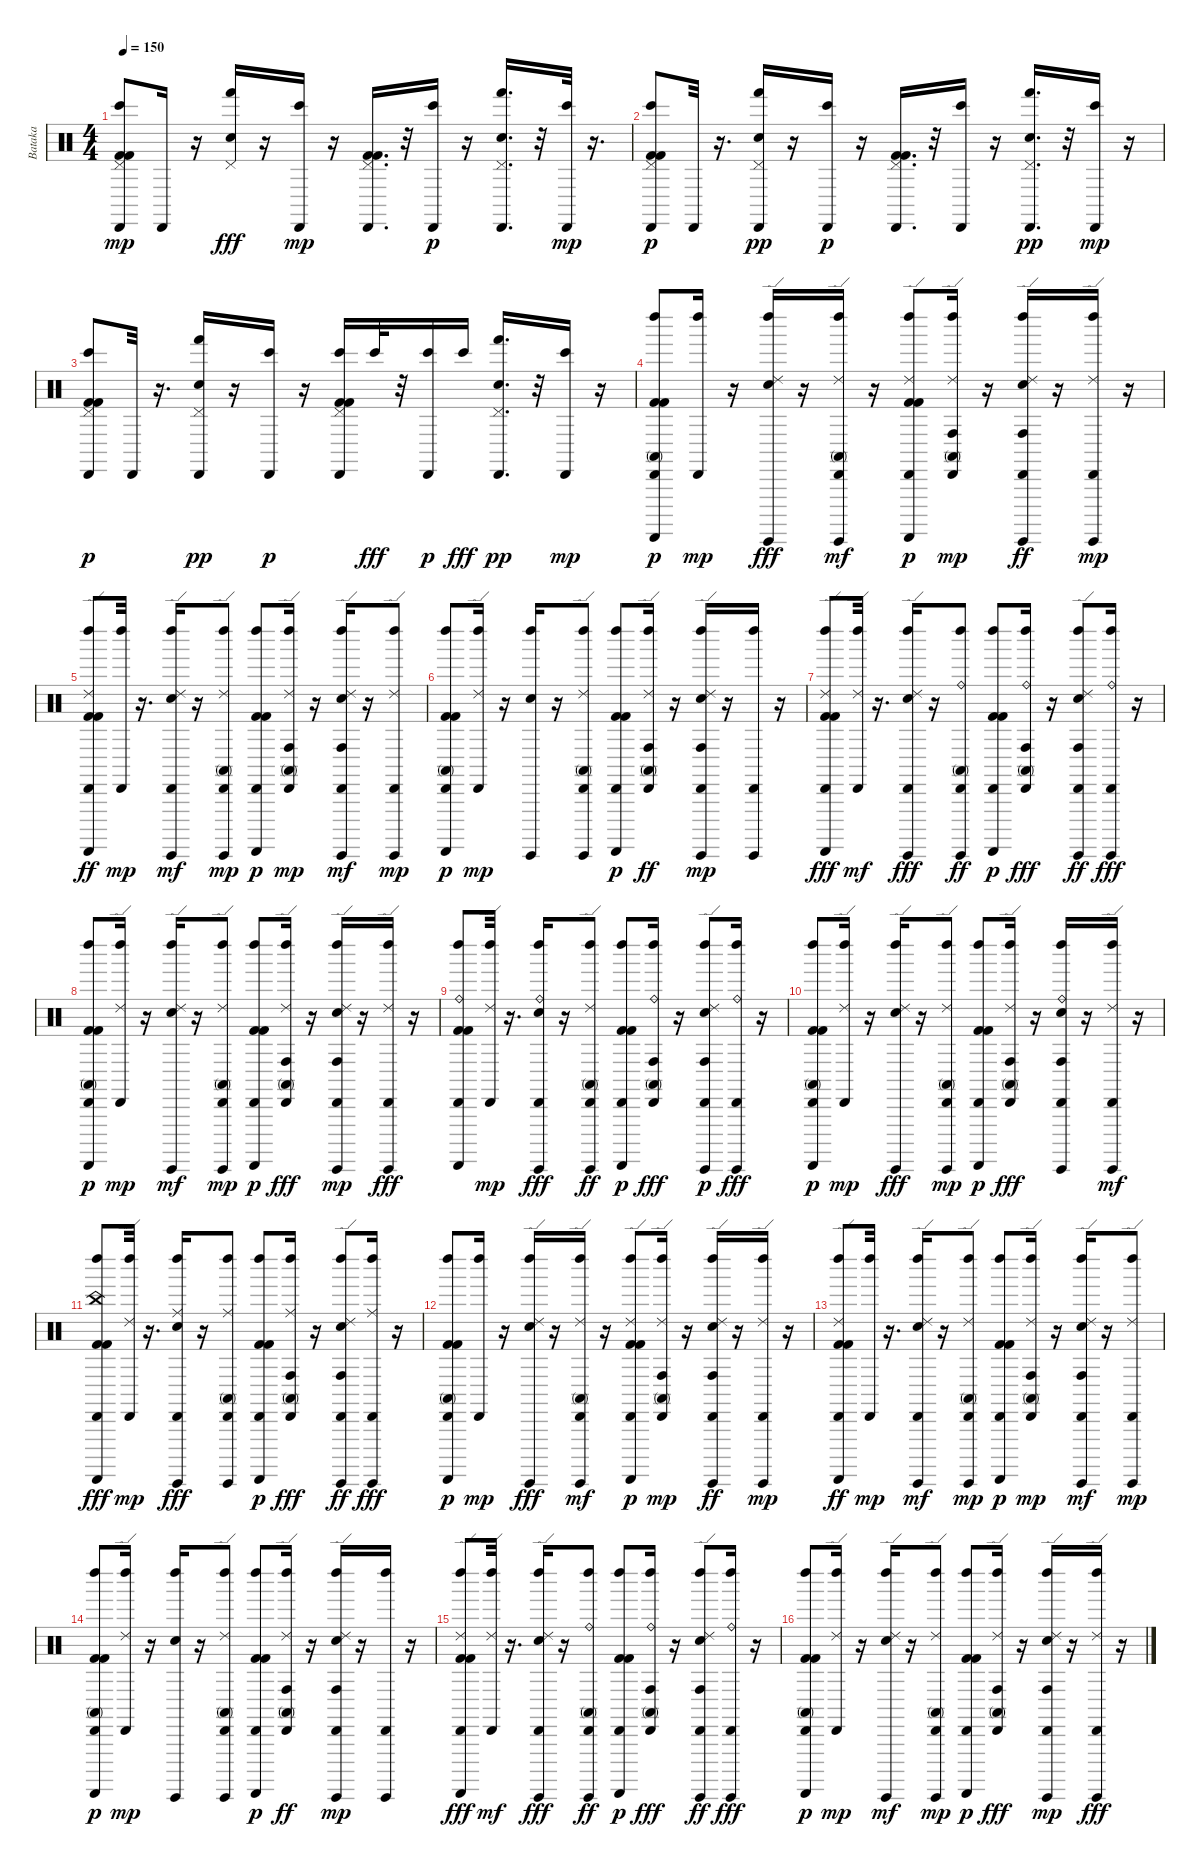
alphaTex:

\track ("Bataka" "Bataka") {instrument percussion}
\staff {score}
\articulation defaults
\ts (4 4)
\tempo 150
\clef neutral
\ks c
("Kick (hit) 2" "Kick (hit) 2" "Pedal Hi-Hat (hit)" "Bongo High (hit)" "Cabasa (hit)").8{dy mp} "Cabasa (hit)".16 r.16 ("Electric Snare (hit)" "Pedal Hi-Hat (hit)" "Hand (hit)").16{dy fff} r.16 ("Bongo High (hit)" "Cabasa (hit)").16{dy mp} r.16 ("Kick (hit) 2" "Kick (hit) 2" "Pedal Hi-Hat (hit)" "Cabasa (hit)").16{d} r.32 ("Bongo High (hit)" "Cabasa (hit)").16{dy p} r.16 ("Electric Snare (hit)" "Pedal Hi-Hat (hit)" "Hand (hit)" "Cabasa (hit)").16{d} r.32 ("Bongo High (hit)" "Cabasa (hit)").32{dy mp} r.16{d} |
("Kick (hit) 2" "Kick (hit) 2" "Pedal Hi-Hat (hit)" "Bongo High (hit)" "Cabasa (hit)").8{dy p} "Cabasa (hit)".32 r.16{d} ("Electric Snare (hit)" "Pedal Hi-Hat (hit)" "Hand (hit)" "Cabasa (hit)").16{dy pp} r.16 ("Bongo High (hit)" "Cabasa (hit)").16{dy p} r.16 ("Kick (hit) 2" "Kick (hit) 2" "Pedal Hi-Hat (hit)" "Cabasa (hit)").16{d} r.32 ("Bongo High (hit)" "Cabasa (hit)").16 r.16 ("Electric Snare (hit)" "Pedal Hi-Hat (hit)" "Hand (hit)" "Cabasa (hit)").16{d dy pp} r.32 ("Bongo High (hit)" "Cabasa (hit)").16{dy mp} r.16 |
("Kick (hit) 2" "Kick (hit) 2" "Pedal Hi-Hat (hit)" "Bongo High (hit)" "Cabasa (hit)").8{dy p} "Cabasa (hit)".32 r.16{d} ("Electric Snare (hit)" "Pedal Hi-Hat (hit)" "Hand (hit)" "Cabasa (hit)").16{dy pp} r.16 ("Bongo High (hit)" "Cabasa (hit)").16{dy p} r.16 ("Kick (hit) 2" "Kick (hit) 2" "Pedal Hi-Hat (hit)" "Bongo High (hit)" "Cabasa (hit)").16 "Bongo High (hit)".32{dy fff} r.32 ("Bongo High (hit)" "Cabasa (hit)").16{dy p} "Bongo High (hit)".16{dy fff} ("Electric Snare (hit)" "Pedal Hi-Hat (hit)" "Hand (hit)" "Cabasa (hit)").16{d dy pp} r.32 ("Bongo High (hit)" "Cabasa (hit)").16{dy mp} r.16 |
("Kick (hit) 2" "Kick (hit) 2" "Conga high (mute)" "Cabasa (hit)" "Guiro (scrap-return)" "Left Maraca (hit)").8{dy p} ("Cabasa (hit)" "Left Maraca (hit)").16{dy mp} r.16 ("Electric Snare (hit)" "Guiro (hit)" "Left Maraca (hit)" "Ride (edge) 2").16{dy fff} r.16 ("Conga high (mute)" "Cabasa (hit)" "Guiro (hit)" "Left Maraca (hit)" "Ride (edge) 2").16{dy mf} r.16 ("Kick (hit) 2" "Kick (hit) 2" "Cabasa (hit)" "Guiro (scrap-return)" "Left Maraca (hit)" "Ride (edge) 2").8{dy p} ("Conga high (hit)" "Conga high (mute)" "Cabasa (hit)" "Left Maraca (hit)" "Ride (edge) 2").16{dy mp} r.16 ("Electric Snare (hit)" "Conga high (hit)" "Cabasa (hit)" "Guiro (hit)" "Left Maraca (hit)" "Ride (edge) 2").16{dy ff} r.16 ("Cabasa (hit)" "Guiro (hit)" "Left Maraca (hit)" "Ride (edge) 2").16{dy mp} r.16 |
("Kick (hit) 2" "Kick (hit) 2" "Cabasa (hit)" "Guiro (scrap-return)" "Left Maraca (hit)" "Ride (edge) 2").8{dy ff} ("Cabasa (hit)" "Left Maraca (hit)").32{dy mp} r.16{d} ("Electric Snare (hit)" "Cabasa (hit)" "Guiro (hit)" "Left Maraca (hit)" "Ride (edge) 2").16{dy mf} r.16 ("Conga high (mute)" "Cabasa (hit)" "Guiro (hit)" "Left Maraca (hit)" "Ride (edge) 2").8{dy mp} ("Kick (hit) 2" "Kick (hit) 2" "Cabasa (hit)" "Guiro (scrap-return)" "Left Maraca (hit)").8{dy p} ("Conga high (hit)" "Conga high (mute)" "Cabasa (hit)" "Left Maraca (hit)" "Ride (edge) 2").16{dy mp} r.16 ("Electric Snare (hit)" "Conga high (hit)" "Cabasa (hit)" "Guiro (hit)" "Left Maraca (hit)" "Ride (edge) 2").16{dy mf} r.16 ("Cabasa (hit)" "Guiro (hit)" "Left Maraca (hit)" "Ride (edge) 2").8{dy mp} |
("Kick (hit) 2" "Kick (hit) 2" "Conga high (mute)" "Cabasa (hit)" "Guiro (scrap-return)" "Left Maraca (hit)").8{dy p} ("Cabasa (hit)" "Left Maraca (hit)" "Ride (edge) 2").16{dy mp} r.16 ("Electric Snare (hit)" "Guiro (hit)" "Left Maraca (hit)").16 r.16 ("Conga high (mute)" "Cabasa (hit)" "Guiro (hit)" "Left Maraca (hit)" "Ride (edge) 2").8 ("Kick (hit) 2" "Kick (hit) 2" "Cabasa (hit)" "Guiro (scrap-return)" "Left Maraca (hit)").8{dy p} ("Conga high (hit)" "Conga high (mute)" "Cabasa (hit)" "Left Maraca (hit)" "Ride (edge) 2").16{dy ff} r.16 ("Electric Snare (hit)" "Conga high (hit)" "Cabasa (hit)" "Guiro (hit)" "Left Maraca (hit)" "Ride (edge) 2").16{dy mp} r.16 ("Cabasa (hit)" "Guiro (hit)" "Left Maraca (hit)").16 r.16 |
("Kick (hit) 2" "Kick (hit) 2" "Cabasa (hit)" "Guiro (scrap-return)" "Left Maraca (hit)" "Ride (edge) 2").8{dy fff} ("Cabasa (hit)" "Left Maraca (hit)" "Ride (edge) 2").32{dy mf} r.16{d} ("Electric Snare (hit)" "Cabasa (hit)" "Guiro (hit)" "Left Maraca (hit)" "Ride (edge) 2").16{dy fff} r.16 ("Conga high (mute)" "Cabasa (hit)" "Guiro (hit)" "Left Maraca (hit)" "Ride (bell)").8{dy ff} ("Kick (hit) 2" "Kick (hit) 2" "Cabasa (hit)" "Guiro (scrap-return)" "Left Maraca (hit)").8{dy p} ("Conga high (hit)" "Conga high (mute)" "Cabasa (hit)" "Left Maraca (hit)" "Ride (bell)").16{dy fff} r.16 ("Electric Snare (hit)" "Conga high (hit)" "Cabasa (hit)" "Guiro (hit)" "Left Maraca (hit)" "Ride (edge) 2").8{dy ff} ("Cabasa (hit)" "Guiro (hit)" "Left Maraca (hit)" "Ride (bell)").16{dy fff} r.16 |
("Kick (hit) 2" "Kick (hit) 2" "Conga high (mute)" "Cabasa (hit)" "Guiro (scrap-return)" "Left Maraca (hit)").8{dy p} ("Cabasa (hit)" "Left Maraca (hit)" "Ride (edge) 2").16{dy mp} r.16 ("Electric Snare (hit)" "Guiro (hit)" "Left Maraca (hit)" "Ride (edge) 2").16{dy mf} r.16 ("Conga high (mute)" "Cabasa (hit)" "Guiro (hit)" "Left Maraca (hit)" "Ride (edge) 2").8{dy mp} ("Kick (hit) 2" "Kick (hit) 2" "Cabasa (hit)" "Guiro (scrap-return)" "Left Maraca (hit)").8{dy p} ("Conga high (hit)" "Conga high (mute)" "Cabasa (hit)" "Left Maraca (hit)" "Ride (edge) 2").16{dy fff} r.16 ("Electric Snare (hit)" "Conga high (hit)" "Cabasa (hit)" "Guiro (hit)" "Left Maraca (hit)" "Ride (edge) 2").16{dy mp} r.16 ("Cabasa (hit)" "Guiro (hit)" "Left Maraca (hit)" "Ride (edge) 2").16{dy fff} r.16 |
("Kick (hit) 2" "Kick (hit) 2" "Cabasa (hit)" "Guiro (scrap-return)" "Left Maraca (hit)" "Ride (bell)").8 ("Cabasa (hit)" "Left Maraca (hit)" "Ride (edge) 2").32{dy mp} r.16{d} ("Electric Snare (hit)" "Cabasa (hit)" "Guiro (hit)" "Left Maraca (hit)" "Ride (bell)").16{dy fff} r.16 ("Conga high (mute)" "Cabasa (hit)" "Guiro (hit)" "Left Maraca (hit)" "Ride (edge) 2").8{dy ff} ("Kick (hit) 2" "Kick (hit) 2" "Cabasa (hit)" "Guiro (scrap-return)" "Left Maraca (hit)").8{dy p} ("Conga high (hit)" "Conga high (mute)" "Cabasa (hit)" "Left Maraca (hit)" "Ride (bell)").16{dy fff} r.16 ("Electric Snare (hit)" "Conga high (hit)" "Cabasa (hit)" "Guiro (hit)" "Left Maraca (hit)" "Ride (edge) 2").8{dy p} ("Cabasa (hit)" "Guiro (hit)" "Left Maraca (hit)" "Ride (bell)").16{dy fff} r.16 |
("Kick (hit) 2" "Kick (hit) 2" "Conga high (mute)" "Cabasa (hit)" "Guiro (scrap-return)" "Left Maraca (hit)").8{dy p} ("Cabasa (hit)" "Left Maraca (hit)" "Ride (edge) 2").16{dy mp} r.16 ("Electric Snare (hit)" "Guiro (hit)" "Left Maraca (hit)" "Ride (edge) 2").16{dy fff} r.16 ("Conga high (mute)" "Cabasa (hit)" "Guiro (hit)" "Left Maraca (hit)" "Ride (edge) 2").8{dy mp} ("Kick (hit) 2" "Kick (hit) 2" "Cabasa (hit)" "Guiro (scrap-return)" "Left Maraca (hit)").8{dy p} ("Conga high (hit)" "Conga high (mute)" "Cabasa (hit)" "Left Maraca (hit)" "Ride (edge) 2").16{dy fff} r.16 ("Electric Snare (hit)" "Conga high (hit)" "Cabasa (hit)" "Guiro (hit)" "Left Maraca (hit)" "Ride (bell)").16 r.16 ("Cabasa (hit)" "Guiro (hit)" "Left Maraca (hit)" "Ride (edge) 2").16{dy mf} r.16 |
("Kick (hit) 2" "Kick (hit) 2" "Cabasa (hit)" "Guiro (scrap-return)" "Left Maraca (hit)" "China (hit)").8{dy fff} ("Cabasa (hit)" "Left Maraca (hit)" "Ride (edge) 2").32{dy mp} r.16{d} ("Electric Snare (hit)" "Cabasa (hit)" "Guiro (hit)" "Left Maraca (hit)" "Ride (middle)").16{dy fff} r.16 ("Conga high (mute)" "Cabasa (hit)" "Guiro (hit)" "Left Maraca (hit)" "Ride (middle)").8 ("Kick (hit) 2" "Kick (hit) 2" "Cabasa (hit)" "Guiro (scrap-return)" "Left Maraca (hit)").8{dy p} ("Conga high (hit)" "Conga high (mute)" "Cabasa (hit)" "Left Maraca (hit)" "Ride (middle)").16{dy fff} r.16 ("Electric Snare (hit)" "Conga high (hit)" "Cabasa (hit)" "Guiro (hit)" "Left Maraca (hit)" "Ride (edge) 2").8{dy ff} ("Cabasa (hit)" "Guiro (hit)" "Left Maraca (hit)" "Ride (middle)").16{dy fff} r.16 |
("Kick (hit) 2" "Kick (hit) 2" "Conga high (mute)" "Cabasa (hit)" "Guiro (scrap-return)" "Left Maraca (hit)").8{dy p} ("Cabasa (hit)" "Left Maraca (hit)").16{dy mp} r.16 ("Electric Snare (hit)" "Guiro (hit)" "Left Maraca (hit)" "Ride (edge) 2").16{dy fff} r.16 ("Conga high (mute)" "Cabasa (hit)" "Guiro (hit)" "Left Maraca (hit)" "Ride (edge) 2").16{dy mf} r.16 ("Kick (hit) 2" "Kick (hit) 2" "Cabasa (hit)" "Guiro (scrap-return)" "Left Maraca (hit)" "Ride (edge) 2").8{dy p} ("Conga high (hit)" "Conga high (mute)" "Cabasa (hit)" "Left Maraca (hit)" "Ride (edge) 2").16{dy mp} r.16 ("Electric Snare (hit)" "Conga high (hit)" "Cabasa (hit)" "Guiro (hit)" "Left Maraca (hit)" "Ride (edge) 2").16{dy ff} r.16 ("Cabasa (hit)" "Guiro (hit)" "Left Maraca (hit)" "Ride (edge) 2").16{dy mp} r.16 |
("Kick (hit) 2" "Kick (hit) 2" "Cabasa (hit)" "Guiro (scrap-return)" "Left Maraca (hit)" "Ride (edge) 2").8{dy ff} ("Cabasa (hit)" "Left Maraca (hit)").32{dy mp} r.16{d} ("Electric Snare (hit)" "Cabasa (hit)" "Guiro (hit)" "Left Maraca (hit)" "Ride (edge) 2").16{dy mf} r.16 ("Conga high (mute)" "Cabasa (hit)" "Guiro (hit)" "Left Maraca (hit)" "Ride (edge) 2").8{dy mp} ("Kick (hit) 2" "Kick (hit) 2" "Cabasa (hit)" "Guiro (scrap-return)" "Left Maraca (hit)").8{dy p} ("Conga high (hit)" "Conga high (mute)" "Cabasa (hit)" "Left Maraca (hit)" "Ride (edge) 2").16{dy mp} r.16 ("Electric Snare (hit)" "Conga high (hit)" "Cabasa (hit)" "Guiro (hit)" "Left Maraca (hit)" "Ride (edge) 2").16{dy mf} r.16 ("Cabasa (hit)" "Guiro (hit)" "Left Maraca (hit)" "Ride (edge) 2").8{dy mp} |
("Kick (hit) 2" "Kick (hit) 2" "Conga high (mute)" "Cabasa (hit)" "Guiro (scrap-return)" "Left Maraca (hit)").8{dy p} ("Cabasa (hit)" "Left Maraca (hit)" "Ride (edge) 2").16{dy mp} r.16 ("Electric Snare (hit)" "Guiro (hit)" "Left Maraca (hit)").16 r.16 ("Conga high (mute)" "Cabasa (hit)" "Guiro (hit)" "Left Maraca (hit)" "Ride (edge) 2").8 ("Kick (hit) 2" "Kick (hit) 2" "Cabasa (hit)" "Guiro (scrap-return)" "Left Maraca (hit)").8{dy p} ("Conga high (hit)" "Conga high (mute)" "Cabasa (hit)" "Left Maraca (hit)" "Ride (edge) 2").16{dy ff} r.16 ("Electric Snare (hit)" "Conga high (hit)" "Cabasa (hit)" "Guiro (hit)" "Left Maraca (hit)" "Ride (edge) 2").16{dy mp} r.16 ("Cabasa (hit)" "Guiro (hit)" "Left Maraca (hit)").16 r.16 |
("Kick (hit) 2" "Kick (hit) 2" "Cabasa (hit)" "Guiro (scrap-return)" "Left Maraca (hit)" "Ride (edge) 2").8{dy fff} ("Cabasa (hit)" "Left Maraca (hit)" "Ride (edge) 2").32{dy mf} r.16{d} ("Electric Snare (hit)" "Cabasa (hit)" "Guiro (hit)" "Left Maraca (hit)" "Ride (edge) 2").16{dy fff} r.16 ("Conga high (mute)" "Cabasa (hit)" "Guiro (hit)" "Left Maraca (hit)" "Ride (bell)").8{dy ff} ("Kick (hit) 2" "Kick (hit) 2" "Cabasa (hit)" "Guiro (scrap-return)" "Left Maraca (hit)").8{dy p} ("Conga high (hit)" "Conga high (mute)" "Cabasa (hit)" "Left Maraca (hit)" "Ride (bell)").16{dy fff} r.16 ("Electric Snare (hit)" "Conga high (hit)" "Cabasa (hit)" "Guiro (hit)" "Left Maraca (hit)" "Ride (edge) 2").8{dy ff} ("Cabasa (hit)" "Guiro (hit)" "Left Maraca (hit)" "Ride (bell)").16{dy fff} r.16 |
("Kick (hit) 2" "Kick (hit) 2" "Conga high (mute)" "Cabasa (hit)" "Guiro (scrap-return)" "Left Maraca (hit)").8{dy p} ("Cabasa (hit)" "Left Maraca (hit)" "Ride (edge) 2").16{dy mp} r.16 ("Electric Snare (hit)" "Guiro (hit)" "Left Maraca (hit)" "Ride (edge) 2").16{dy mf} r.16 ("Conga high (mute)" "Cabasa (hit)" "Guiro (hit)" "Left Maraca (hit)" "Ride (edge) 2").8{dy mp} ("Kick (hit) 2" "Kick (hit) 2" "Cabasa (hit)" "Guiro (scrap-return)" "Left Maraca (hit)").8{dy p} ("Conga high (hit)" "Conga high (mute)" "Cabasa (hit)" "Left Maraca (hit)" "Ride (edge) 2").16{dy fff} r.16 ("Electric Snare (hit)" "Conga high (hit)" "Cabasa (hit)" "Guiro (hit)" "Left Maraca (hit)" "Ride (edge) 2").16{dy mp} r.16 ("Cabasa (hit)" "Guiro (hit)" "Left Maraca (hit)" "Ride (edge) 2").16{dy fff} r.16
